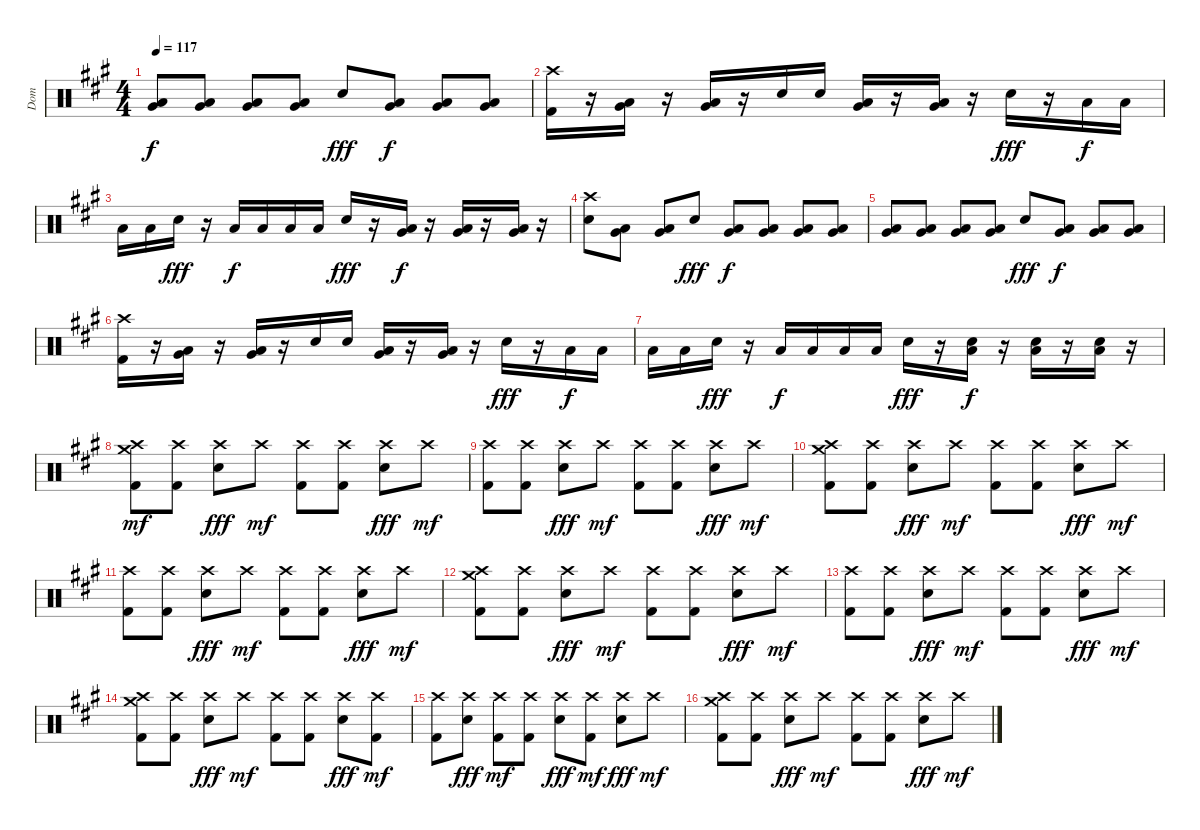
\track ("Dom" "Dom") {instrument percussion}
\staff {score}
\articulation defaults
\ts (4 4)
\tempo 117
\clef neutral
\ks a
("Very Low Tom (hit)" "Low Floor Tom (hit)").8{dy f} ("Very Low Tom (hit)" "Low Floor Tom (hit)").8 ("Very Low Tom (hit)" "Low Floor Tom (hit)").8 ("Very Low Tom (hit)" "Low Floor Tom (hit)").8 "Snare (hit) 2".8{dy fff} ("Very Low Tom (hit)" "Low Floor Tom (hit)").8{dy f} ("Very Low Tom (hit)" "Low Floor Tom (hit)").8 ("Very Low Tom (hit)" "Low Floor Tom (hit)").8 |
("Crash high (hit)" "Kick (hit) 2").16 r.16 ("Very Low Tom (hit)" "Low Floor Tom (hit)").16 r.16 ("Very Low Tom (hit)" "Low Floor Tom (hit)").16 r.16 "Snare (hit) 2".16 "Snare (hit) 2".16 ("Very Low Tom (hit)" "Low Floor Tom (hit)").16 r.16 ("Very Low Tom (hit)" "Low Floor Tom (hit)").16 r.16 "Snare (hit) 2".16{dy fff} r.16 "Low Floor Tom (hit)".16{dy f} "Low Floor Tom (hit)".16 |
"Low Floor Tom (hit)".16 "Low Floor Tom (hit)".16 "Snare (hit) 2".16{dy fff} r.16 "Low Floor Tom (hit)".16{dy f} "Low Floor Tom (hit)".16 "Low Floor Tom (hit)".16 "Low Floor Tom (hit)".16 "Snare (hit) 2".16{dy fff} r.16 ("Very Low Tom (hit)" "Low Floor Tom (hit)").16{dy f} r.16 ("Very Low Tom (hit)" "Low Floor Tom (hit)").16 r.16 ("Very Low Tom (hit)" "Low Floor Tom (hit)").16 r.16 |
("Crash high (hit)" "Snare (hit) 2").8 ("Very Low Tom (hit)" "Low Floor Tom (hit)").8 ("Very Low Tom (hit)" "Low Floor Tom (hit)").8 "Snare (hit) 2".8{dy fff} ("Very Low Tom (hit)" "Low Floor Tom (hit)").8{dy f} ("Very Low Tom (hit)" "Low Floor Tom (hit)").8 ("Very Low Tom (hit)" "Low Floor Tom (hit)").8 ("Very Low Tom (hit)" "Low Floor Tom (hit)").8 |
("Very Low Tom (hit)" "Low Floor Tom (hit)").8 ("Very Low Tom (hit)" "Low Floor Tom (hit)").8 ("Very Low Tom (hit)" "Low Floor Tom (hit)").8 ("Very Low Tom (hit)" "Low Floor Tom (hit)").8 "Snare (hit) 2".8{dy fff} ("Very Low Tom (hit)" "Low Floor Tom (hit)").8{dy f} ("Very Low Tom (hit)" "Low Floor Tom (hit)").8 ("Very Low Tom (hit)" "Low Floor Tom (hit)").8 |
("Crash high (hit)" "Kick (hit) 2").16 r.16 ("Very Low Tom (hit)" "Low Floor Tom (hit)").16 r.16 ("Very Low Tom (hit)" "Low Floor Tom (hit)").16 r.16 "Snare (hit) 2".16 "Snare (hit) 2".16 ("Very Low Tom (hit)" "Low Floor Tom (hit)").16 r.16 ("Very Low Tom (hit)" "Low Floor Tom (hit)").16 r.16 "Snare (hit) 2".16{dy fff} r.16 "Low Floor Tom (hit)".16{dy f} "Low Floor Tom (hit)".16 |
"Low Floor Tom (hit)".16 "Low Floor Tom (hit)".16 "Snare (hit) 2".16{dy fff} r.16 "Low Floor Tom (hit)".16{dy f} "Low Floor Tom (hit)".16 "Low Floor Tom (hit)".16 "Low Floor Tom (hit)".16 "Snare (hit) 2".16{dy fff} r.16 ("Low Floor Tom (hit)" "Snare (hit) 2").16{dy f} r.16 ("Low Floor Tom (hit)" "Snare (hit) 2").16 r.16 ("Low Floor Tom (hit)" "Snare (hit) 2").16 r.16 |
("Crash medium (hit)" "Crash high (hit)" "Kick (hit) 2").8{dy mf} ("Crash high (hit)" "Kick (hit) 2").8 ("Crash high (hit)" "Snare (hit) 2").8{dy fff} "Crash high (hit)".8{dy mf} ("Crash high (hit)" "Kick (hit) 2").8 ("Crash high (hit)" "Kick (hit) 2").8 ("Crash high (hit)" "Snare (hit) 2").8{dy fff} "Crash high (hit)".8{dy mf} |
("Crash high (hit)" "Kick (hit) 2").8 ("Crash high (hit)" "Kick (hit) 2").8 ("Crash high (hit)" "Snare (hit) 2").8{dy fff} "Crash high (hit)".8{dy mf} ("Crash high (hit)" "Kick (hit) 2").8 ("Crash high (hit)" "Kick (hit) 2").8 ("Crash high (hit)" "Snare (hit) 2").8{dy fff} "Crash high (hit)".8{dy mf} |
("Crash medium (hit)" "Crash high (hit)" "Kick (hit) 2").8 ("Crash high (hit)" "Kick (hit) 2").8 ("Crash high (hit)" "Snare (hit) 2").8{dy fff} "Crash high (hit)".8{dy mf} ("Crash high (hit)" "Kick (hit) 2").8 ("Crash high (hit)" "Kick (hit) 2").8 ("Crash high (hit)" "Snare (hit) 2").8{dy fff} "Crash high (hit)".8{dy mf} |
("Crash high (hit)" "Kick (hit) 2").8 ("Crash high (hit)" "Kick (hit) 2").8 ("Crash high (hit)" "Snare (hit) 2").8{dy fff} "Crash high (hit)".8{dy mf} ("Crash high (hit)" "Kick (hit) 2").8 ("Crash high (hit)" "Kick (hit) 2").8 ("Crash high (hit)" "Snare (hit) 2").8{dy fff} "Crash high (hit)".8{dy mf} |
("Crash medium (hit)" "Crash high (hit)" "Kick (hit) 2").8 ("Crash high (hit)" "Kick (hit) 2").8 ("Crash high (hit)" "Snare (hit) 2").8{dy fff} "Crash high (hit)".8{dy mf} ("Crash high (hit)" "Kick (hit) 2").8 ("Crash high (hit)" "Kick (hit) 2").8 ("Crash high (hit)" "Snare (hit) 2").8{dy fff} "Crash high (hit)".8{dy mf} |
("Crash high (hit)" "Kick (hit) 2").8 ("Crash high (hit)" "Kick (hit) 2").8 ("Crash high (hit)" "Snare (hit) 2").8{dy fff} "Crash high (hit)".8{dy mf} ("Crash high (hit)" "Kick (hit) 2").8 ("Crash high (hit)" "Kick (hit) 2").8 ("Crash high (hit)" "Snare (hit) 2").8{dy fff} "Crash high (hit)".8{dy mf} |
("Crash medium (hit)" "Crash high (hit)" "Kick (hit) 2").8 ("Crash high (hit)" "Kick (hit) 2").8 ("Crash high (hit)" "Snare (hit) 2").8{dy fff} "Crash high (hit)".8{dy mf} ("Crash high (hit)" "Kick (hit) 2").8 ("Crash high (hit)" "Kick (hit) 2").8 ("Crash high (hit)" "Snare (hit) 2").8{dy fff} ("Crash high (hit)" "Kick (hit) 2").8{dy mf} |
("Crash high (hit)" "Kick (hit) 2").8 ("Crash high (hit)" "Snare (hit) 2").8{dy fff} ("Crash high (hit)" "Kick (hit) 2").8{dy mf} ("Crash high (hit)" "Kick (hit) 2").8 ("Crash high (hit)" "Snare (hit) 2").8{dy fff} ("Crash high (hit)" "Kick (hit) 2").8{dy mf} ("Crash high (hit)" "Snare (hit) 2").8{dy fff} "Crash high (hit)".8{dy mf} |
("Crash medium (hit)" "Crash high (hit)" "Kick (hit) 2").8 ("Crash high (hit)" "Kick (hit) 2").8 ("Crash high (hit)" "Snare (hit) 2").8{dy fff} "Crash high (hit)".8{dy mf} ("Crash high (hit)" "Kick (hit) 2").8 ("Crash high (hit)" "Kick (hit) 2").8 ("Crash high (hit)" "Snare (hit) 2").8{dy fff} "Crash high (hit)".8{dy mf}
